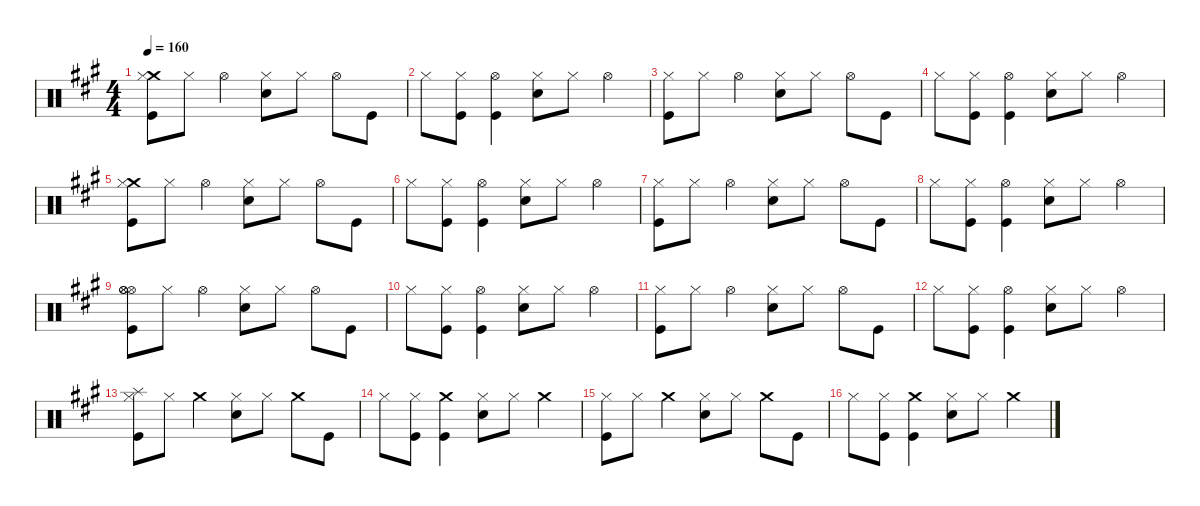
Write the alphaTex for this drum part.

\defaultSystemsLayout 4
\hideDynamics
\bracketExtendMode nobrackets
\singleTrackTrackNamePolicy hidden
\multiTrackTrackNamePolicy hidden
\firstSystemTrackNameMode fullname
\firstSystemTrackNameOrientation horizontal
\otherSystemsTrackNameOrientation horizontal
\track ("Drums" "drm.") {instrument percussion}
\staff {score}
\articulation defaults
\ts (4 4)
\tempo 160
\clef neutral
\ks f#minor
("Crash medium (hit)"{acc forcenatural} "Hi-Hat (closed)"{acc forcenatural} "Kick (hit)"{acc forcenatural}).8{dy f beam Down} "Hi-Hat (closed)"{acc forcenatural}.8{dy mf beam Down} "Hi-Hat (open)"{acc forcenatural}.4{dy f beam Down} ("Hi-Hat (closed)"{acc forcenatural} "Snare (hit) 2"{acc forcenatural}).8{beam Down} "Hi-Hat (closed)"{acc forcenatural}.8{dy mf beam Down} "Hi-Hat (open)"{acc forcenatural}.8{dy f beam Down} "Kick (hit)"{acc forcenatural}.8{beam Down} |
"Hi-Hat (closed)"{acc forcenatural}.8{beam Down} ("Hi-Hat (closed)"{acc forcenatural} "Kick (hit)"{acc forcenatural}).8{dy mf beam Down} ("Hi-Hat (open)"{acc forcenatural} "Kick (hit)"{acc forcenatural}).4{dy f beam Down} ("Hi-Hat (closed)"{acc forcenatural} "Snare (hit) 2"{acc forcenatural}).8{beam Down} "Hi-Hat (closed)"{acc forcenatural}.8{dy mf beam Down} "Hi-Hat (open)"{acc forcenatural}.4{dy f beam Down} |
("Hi-Hat (closed)"{acc forcenatural} "Kick (hit)"{acc forcenatural}).8{beam Down} "Hi-Hat (closed)"{acc forcenatural}.8{dy mf beam Down} "Hi-Hat (open)"{acc forcenatural}.4{dy f beam Down} ("Hi-Hat (closed)"{acc forcenatural} "Snare (hit) 2"{acc forcenatural}).8{beam Down} "Hi-Hat (closed)"{acc forcenatural}.8{dy mf beam Down} "Hi-Hat (open)"{acc forcenatural}.8{dy f beam Down} "Kick (hit)"{acc forcenatural}.8{beam Down} |
"Hi-Hat (closed)"{acc forcenatural}.8{beam Down} ("Hi-Hat (closed)"{acc forcenatural} "Kick (hit)"{acc forcenatural}).8{dy mf beam Down} ("Hi-Hat (open)"{acc forcenatural} "Kick (hit)"{acc forcenatural}).4{dy f beam Down} ("Hi-Hat (closed)"{acc forcenatural} "Snare (hit) 2"{acc forcenatural}).8{beam Down} "Hi-Hat (closed)"{acc forcenatural}.8{dy mf beam Down} "Hi-Hat (open)"{acc forcenatural}.4{dy f beam Down} |
("Crash medium (hit)"{acc forcenatural} "Hi-Hat (closed)"{acc forcenatural} "Kick (hit)"{acc forcenatural}).8{beam Down} "Hi-Hat (closed)"{acc forcenatural}.8{dy mf beam Down} "Hi-Hat (open)"{acc forcenatural}.4{dy f beam Down} ("Hi-Hat (closed)"{acc forcenatural} "Snare (hit) 2"{acc forcenatural}).8{beam Down} "Hi-Hat (closed)"{acc forcenatural}.8{dy mf beam Down} "Hi-Hat (open)"{acc forcenatural}.8{dy f beam Down} "Kick (hit)"{acc forcenatural}.8{beam Down} |
"Hi-Hat (closed)"{acc forcenatural}.8{beam Down} ("Hi-Hat (closed)"{acc forcenatural} "Kick (hit)"{acc forcenatural}).8{dy mf beam Down} ("Hi-Hat (open)"{acc forcenatural} "Kick (hit)"{acc forcenatural}).4{dy f beam Down} ("Hi-Hat (closed)"{acc forcenatural} "Snare (hit) 2"{acc forcenatural}).8{beam Down} "Hi-Hat (closed)"{acc forcenatural}.8{dy mf beam Down} "Hi-Hat (open)"{acc forcenatural}.4{dy f beam Down} |
("Hi-Hat (closed)"{acc forcenatural} "Kick (hit)"{acc forcenatural}).8{beam Down} "Hi-Hat (closed)"{acc forcenatural}.8{dy mf beam Down} "Hi-Hat (open)"{acc forcenatural}.4{dy f beam Down} ("Hi-Hat (closed)"{acc forcenatural} "Snare (hit) 2"{acc forcenatural}).8{beam Down} "Hi-Hat (closed)"{acc forcenatural}.8{dy mf beam Down} "Hi-Hat (open)"{acc forcenatural}.8{dy f beam Down} "Kick (hit)"{acc forcenatural}.8{beam Down} |
"Hi-Hat (closed)"{acc forcenatural}.8{beam Down} ("Hi-Hat (closed)"{acc forcenatural} "Kick (hit)"{acc forcenatural}).8{dy mf beam Down} ("Hi-Hat (open)"{acc forcenatural} "Kick (hit)"{acc forcenatural}).4{dy f beam Down} ("Hi-Hat (closed)"{acc forcenatural} "Snare (hit) 2"{acc forcenatural}).8{beam Down} "Hi-Hat (closed)"{acc forcenatural}.8{dy mf beam Down} "Hi-Hat (open)"{acc forcenatural}.4{dy f beam Down} |
("Hi-Hat (open)"{acc forcenatural} "Hi-Hat (open)"{acc forcenatural} "Hi-Hat (open)"{acc forcenatural} "Kick (hit)"{acc forcenatural}).8{beam Down} "Hi-Hat (closed)"{acc forcenatural}.8{dy mf beam Down} "Hi-Hat (open)"{acc forcenatural}.4{dy f beam Down} ("Hi-Hat (closed)"{acc forcenatural} "Snare (hit) 2"{acc forcenatural}).8{beam Down} "Hi-Hat (closed)"{acc forcenatural}.8{dy mf beam Down} "Hi-Hat (open)"{acc forcenatural}.8{dy f beam Down} "Kick (hit)"{acc forcenatural}.8{beam Down} |
"Hi-Hat (closed)"{acc forcenatural}.8{beam Down} ("Hi-Hat (closed)"{acc forcenatural} "Kick (hit)"{acc forcenatural}).8{dy mf beam Down} ("Hi-Hat (open)"{acc forcenatural} "Kick (hit)"{acc forcenatural}).4{dy f beam Down} ("Hi-Hat (closed)"{acc forcenatural} "Snare (hit) 2"{acc forcenatural}).8{beam Down} "Hi-Hat (closed)"{acc forcenatural}.8{dy mf beam Down} "Hi-Hat (open)"{acc forcenatural}.4{dy f beam Down} |
("Hi-Hat (closed)"{acc forcenatural} "Kick (hit)"{acc forcenatural}).8{beam Down} "Hi-Hat (closed)"{acc forcenatural}.8{dy mf beam Down} "Hi-Hat (open)"{acc forcenatural}.4{dy f beam Down} ("Hi-Hat (closed)"{acc forcenatural} "Snare (hit) 2"{acc forcenatural}).8{beam Down} "Hi-Hat (closed)"{acc forcenatural}.8{dy mf beam Down} "Hi-Hat (open)"{acc forcenatural}.8{dy f beam Down} "Kick (hit)"{acc forcenatural}.8{beam Down} |
"Hi-Hat (closed)"{acc forcenatural}.8{beam Down} ("Hi-Hat (closed)"{acc forcenatural} "Kick (hit)"{acc forcenatural}).8{dy mf beam Down} ("Hi-Hat (open)"{acc forcenatural} "Kick (hit)"{acc forcenatural}).4{dy f beam Down} ("Hi-Hat (closed)"{acc forcenatural} "Snare (hit) 2"{acc forcenatural}).8{beam Down} "Hi-Hat (closed)"{acc forcenatural}.8{dy mf beam Down} "Hi-Hat (open)"{acc forcenatural}.4{dy f beam Down} |
("Splash (hit)"{acc forcenatural} "Hi-Hat (closed)"{acc forcenatural} "Kick (hit)"{acc forcenatural}).8{beam Down} "Hi-Hat (closed)"{acc forcenatural}.8{dy mp beam Down} "Crash medium (hit)"{acc forcenatural}.4{dy f beam Down} ("Hi-Hat (closed)"{acc forcenatural} "Snare (hit) 2"{acc forcenatural}).8{dy mp beam Down} "Hi-Hat (closed)"{acc forcenatural}.8{beam Down} "Crash medium (hit)"{acc forcenatural}.8{dy f beam Down} "Kick (hit)"{acc forcenatural}.8{beam Down} |
"Hi-Hat (closed)"{acc forcenatural}.8{dy mp beam Down} ("Hi-Hat (closed)"{acc forcenatural} "Kick (hit)"{acc forcenatural}).8{beam Down} ("Crash medium (hit)"{acc forcenatural} "Kick (hit)"{acc forcenatural}).4{dy f beam Down} ("Hi-Hat (closed)"{acc forcenatural} "Snare (hit) 2"{acc forcenatural}).8{dy mp beam Down} "Hi-Hat (closed)"{acc forcenatural}.8{beam Down} "Crash medium (hit)"{acc forcenatural}.4{dy f beam Down} |
("Hi-Hat (closed)"{acc forcenatural} "Kick (hit)"{acc forcenatural}).8{dy mp beam Down} "Hi-Hat (closed)"{acc forcenatural}.8{beam Down} "Crash medium (hit)"{acc forcenatural}.4{dy f beam Down} ("Hi-Hat (closed)"{acc forcenatural} "Snare (hit) 2"{acc forcenatural}).8{dy mp beam Down} "Hi-Hat (closed)"{acc forcenatural}.8{beam Down} "Crash medium (hit)"{acc forcenatural}.8{dy f beam Down} "Kick (hit)"{acc forcenatural}.8{beam Down} |
"Hi-Hat (closed)"{acc forcenatural}.8{dy mp beam Down} ("Hi-Hat (closed)"{acc forcenatural} "Kick (hit)"{acc forcenatural}).8{beam Down} ("Crash medium (hit)"{acc forcenatural} "Kick (hit)"{acc forcenatural}).4{dy f beam Down} ("Hi-Hat (closed)"{acc forcenatural} "Snare (hit) 2"{acc forcenatural}).8{dy mp beam Down} "Hi-Hat (closed)"{acc forcenatural}.8{beam Down} "Crash medium (hit)"{acc forcenatural}.4{dy f beam Down}
